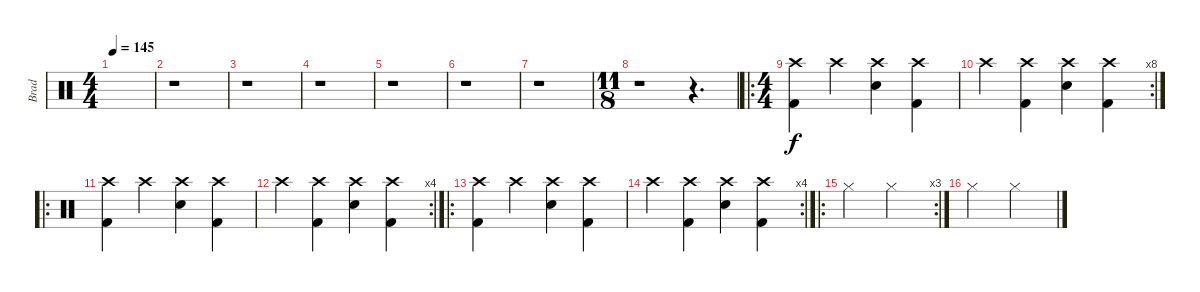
\track ("Brad" "Brad") {instrument percussion}
\staff {score}
\articulation defaults
\ts (4 4)
\tempo 145
\clef neutral
\ks c
|
r.1 |
r.1 |
r.1 |
r.1 |
r.1 |
r.1 |
\ts (11 8)
r.1 r.4{d} |
\ro
\ts (4 4)
("Kick (hit) 2" "Crash high (hit)").4 "Crash high (hit)".4 ("Snare (hit) 2" "Crash high (hit)").4 ("Kick (hit) 2" "Crash high (hit)").4 |
\rc 8 "Crash high (hit)".4
("Kick (hit) 2" "Crash high (hit)").4 ("Snare (hit) 2" "Crash high (hit)").4 ("Kick (hit) 2" "Crash high (hit)").4 |
\ro
("Kick (hit) 2" "Crash high (hit)").4 "Crash high (hit)".4 ("Snare (hit) 2" "Crash high (hit)").4 ("Kick (hit) 2" "Crash high (hit)").4 |
\rc 4 "Crash high (hit)".4
("Kick (hit) 2" "Crash high (hit)").4 ("Snare (hit) 2" "Crash high (hit)").4 ("Kick (hit) 2" "Crash high (hit)").4 |
\ro
("Kick (hit) 2" "Crash high (hit)").4 "Crash high (hit)".4 ("Snare (hit) 2" "Crash high (hit)").4 ("Kick (hit) 2" "Crash high (hit)").4 |
\rc 4 "Crash high (hit)".4
("Kick (hit) 2" "Crash high (hit)").4 ("Snare (hit) 2" "Crash high (hit)").4 ("Kick (hit) 2" "Crash high (hit)").4 |
\ro
\rc 3 "Hi-Hat (closed)".2 "Hi-Hat (closed)".2
|
"Hi-Hat (closed)".2 "Hi-Hat (closed)".2
